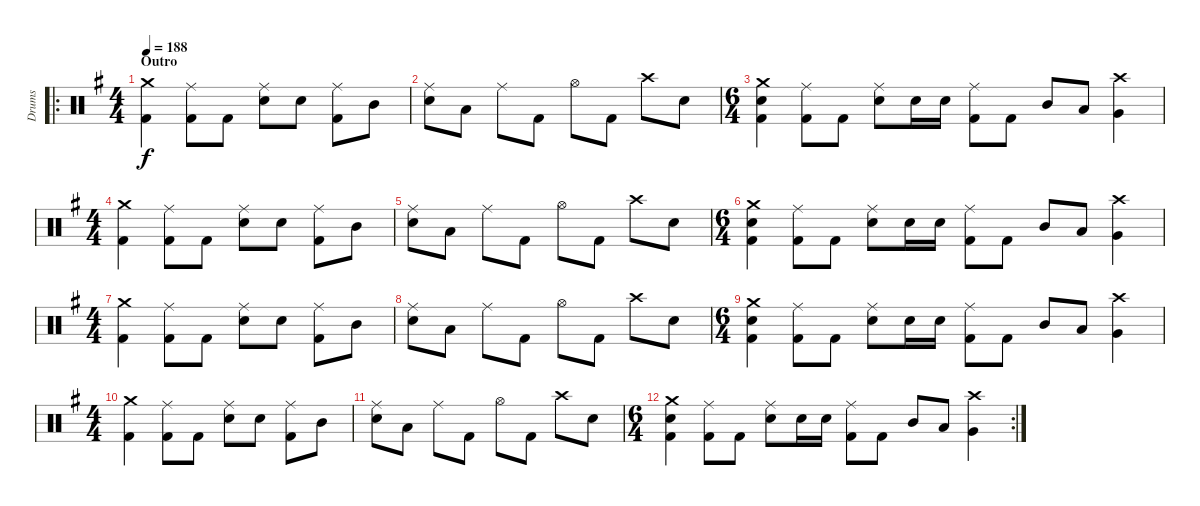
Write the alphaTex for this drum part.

\track ("Drums" "Drums") {instrument percussion}
\staff {score}
\articulation defaults
\ro
\ts (4 4)
\section ("" "Outro")
\tempo 188
\clef neutral
\ks g
("Crash medium (hit)" "Kick (hit) 2").4{dy f} ("Ride (middle)" "Kick (hit) 2").8 "Kick (hit) 2".8 ("Ride (middle)" "Snare (hit) 2").8 "Snare (hit) 2".8 ("Ride (middle)" "Kick (hit) 2").8 "Mid Tom (hit)".8 |
("Ride (middle)" "Snare (hit) 2").8 "Low Tom (hit)".8 "Ride (middle)".8 "Kick (hit) 2".8 "Hi-Hat (open)".8 "Kick (hit) 2".8 "Crash high (hit)".8 "Snare (hit) 2".8 |
\ts (6 4)
("Crash medium (hit)" "Snare (hit) 2" "Kick (hit) 2").4 ("Ride (middle)" "Kick (hit) 2").8 "Kick (hit) 2".8 ("Ride (middle)" "Snare (hit) 2").8 "Snare (hit) 2".16 "Snare (hit) 2".16 ("Ride (middle)" "Kick (hit) 2").8 "Kick (hit) 2".8 "Mid Tom (hit)".8 "Low Tom (hit)".8 ("Crash high (hit)" "Very Low Tom (hit)").4 |
\ts (4 4)
("Crash medium (hit)" "Kick (hit) 2").4 ("Ride (middle)" "Kick (hit) 2").8 "Kick (hit) 2".8 ("Ride (middle)" "Snare (hit) 2").8 "Snare (hit) 2".8 ("Ride (middle)" "Kick (hit) 2").8 "Mid Tom (hit)".8 |
("Ride (middle)" "Snare (hit) 2").8 "Low Tom (hit)".8 "Ride (middle)".8 "Kick (hit) 2".8 "Hi-Hat (open)".8 "Kick (hit) 2".8 "Crash high (hit)".8 "Snare (hit) 2".8 |
\ts (6 4)
("Crash medium (hit)" "Snare (hit) 2" "Kick (hit) 2").4 ("Ride (middle)" "Kick (hit) 2").8 "Kick (hit) 2".8 ("Ride (middle)" "Snare (hit) 2").8 "Snare (hit) 2".16 "Snare (hit) 2".16 ("Ride (middle)" "Kick (hit) 2").8 "Kick (hit) 2".8 "Mid Tom (hit)".8 "Low Tom (hit)".8 ("Crash high (hit)" "Very Low Tom (hit)").4 |
\ts (4 4)
("Crash medium (hit)" "Kick (hit) 2").4 ("Ride (middle)" "Kick (hit) 2").8 "Kick (hit) 2".8 ("Ride (middle)" "Snare (hit) 2").8 "Snare (hit) 2".8 ("Ride (middle)" "Kick (hit) 2").8 "Mid Tom (hit)".8 |
("Ride (middle)" "Snare (hit) 2").8 "Low Tom (hit)".8 "Ride (middle)".8 "Kick (hit) 2".8 "Hi-Hat (open)".8 "Kick (hit) 2".8 "Crash high (hit)".8 "Snare (hit) 2".8 |
\ts (6 4)
("Crash medium (hit)" "Snare (hit) 2" "Kick (hit) 2").4 ("Ride (middle)" "Kick (hit) 2").8 "Kick (hit) 2".8 ("Ride (middle)" "Snare (hit) 2").8 "Snare (hit) 2".16 "Snare (hit) 2".16 ("Ride (middle)" "Kick (hit) 2").8 "Kick (hit) 2".8 "Mid Tom (hit)".8 "Low Tom (hit)".8 ("Crash high (hit)" "Very Low Tom (hit)").4 |
\ts (4 4)
("Crash medium (hit)" "Kick (hit) 2").4 ("Ride (middle)" "Kick (hit) 2").8 "Kick (hit) 2".8 ("Ride (middle)" "Snare (hit) 2").8 "Snare (hit) 2".8 ("Ride (middle)" "Kick (hit) 2").8 "Mid Tom (hit)".8 |
("Ride (middle)" "Snare (hit) 2").8 "Low Tom (hit)".8 "Ride (middle)".8 "Kick (hit) 2".8 "Hi-Hat (open)".8 "Kick (hit) 2".8 "Crash high (hit)".8 "Snare (hit) 2".8 |
\rc 2
\ts (6 4)
("Crash medium (hit)" "Snare (hit) 2" "Kick (hit) 2").4 ("Ride (middle)" "Kick (hit) 2").8 "Kick (hit) 2".8 ("Ride (middle)" "Snare (hit) 2").8 "Snare (hit) 2".16 "Snare (hit) 2".16 ("Ride (middle)" "Kick (hit) 2").8 "Kick (hit) 2".8 "Mid Tom (hit)".8 "Low Tom (hit)".8 ("Crash high (hit)" "Very Low Tom (hit)").4
